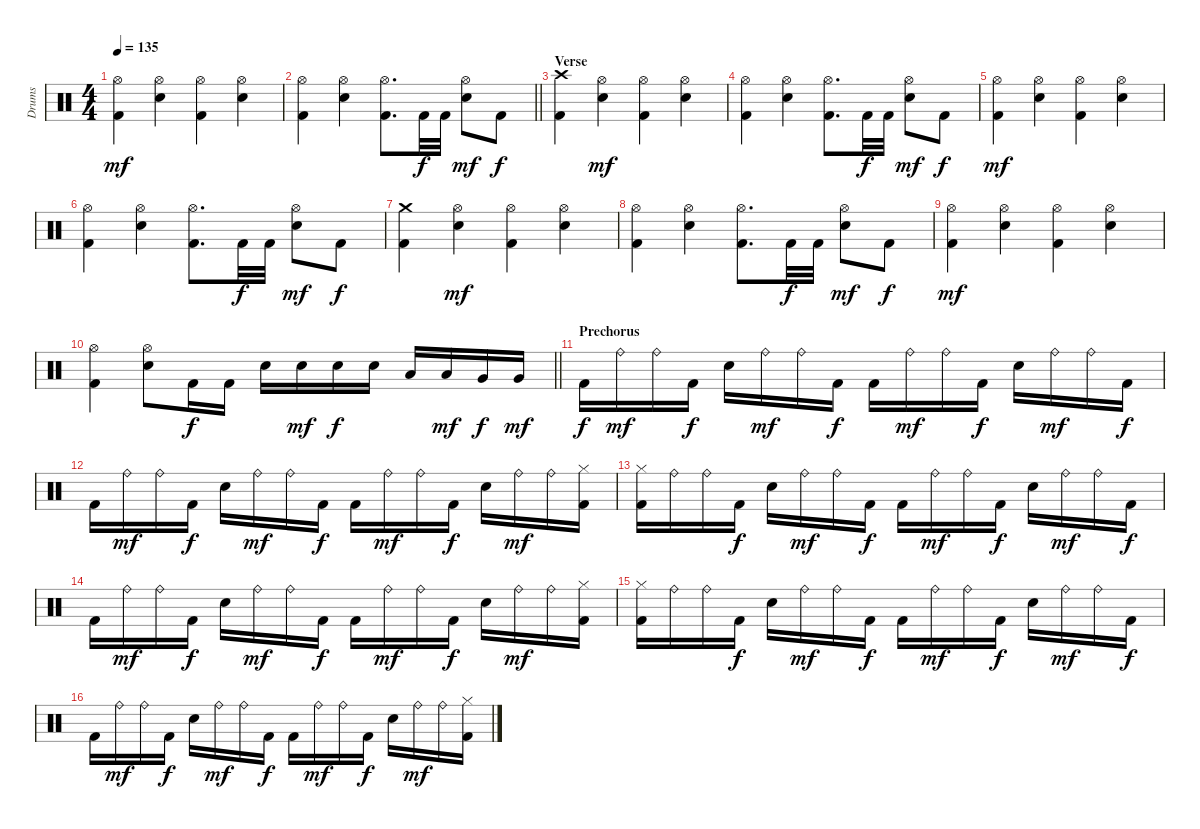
\track ("Drums" "Drums") {instrument percussion}
\staff {score}
\articulation defaults
\ts (4 4)
\tempo 135
\clef neutral
\ks c
("Kick (hit) 2" "Hi-Hat (open)").4{dy mf} ("Hi-Hat (open)" "Electric Snare (hit)").4 ("Kick (hit) 2" "Hi-Hat (open)").4 ("Hi-Hat (open)" "Electric Snare (hit)").4 |
\barLineRight lightlight
("Kick (hit) 2" "Hi-Hat (open)").4 ("Hi-Hat (open)" "Electric Snare (hit)").4 ("Kick (hit) 2" "Hi-Hat (open)").8{d} "Kick (hit) 2".32{dy f} "Kick (hit) 2".32 ("Hi-Hat (open)" "Electric Snare (hit)").8{dy mf} "Kick (hit) 2".8{dy f} |
\section ("" "Verse")
("Kick (hit) 2" "Crash high (hit)").4 ("Hi-Hat (open)" "Electric Snare (hit)").4{dy mf} ("Kick (hit) 2" "Hi-Hat (open)").4 ("Hi-Hat (open)" "Electric Snare (hit)").4 |
("Kick (hit) 2" "Hi-Hat (open)").4 ("Hi-Hat (open)" "Electric Snare (hit)").4 ("Kick (hit) 2" "Hi-Hat (open)").8{d} "Kick (hit) 2".32{dy f} "Kick (hit) 2".32 ("Hi-Hat (open)" "Electric Snare (hit)").8{dy mf} "Kick (hit) 2".8{dy f} |
("Kick (hit) 2" "Hi-Hat (open)").4{dy mf} ("Hi-Hat (open)" "Electric Snare (hit)").4 ("Kick (hit) 2" "Hi-Hat (open)").4 ("Hi-Hat (open)" "Electric Snare (hit)").4 |
("Kick (hit) 2" "Hi-Hat (open)").4 ("Hi-Hat (open)" "Electric Snare (hit)").4 ("Kick (hit) 2" "Hi-Hat (open)").8{d} "Kick (hit) 2".32{dy f} "Kick (hit) 2".32 ("Hi-Hat (open)" "Electric Snare (hit)").8{dy mf} "Kick (hit) 2".8{dy f} |
("Kick (hit) 2" "Crash medium (hit)").4 ("Hi-Hat (open)" "Electric Snare (hit)").4{dy mf} ("Kick (hit) 2" "Hi-Hat (open)").4 ("Hi-Hat (open)" "Electric Snare (hit)").4 |
("Kick (hit) 2" "Hi-Hat (open)").4 ("Hi-Hat (open)" "Electric Snare (hit)").4 ("Kick (hit) 2" "Hi-Hat (open)").8{d} "Kick (hit) 2".32{dy f} "Kick (hit) 2".32 ("Hi-Hat (open)" "Electric Snare (hit)").8{dy mf} "Kick (hit) 2".8{dy f} |
("Kick (hit) 2" "Hi-Hat (open)").4{dy mf} ("Hi-Hat (open)" "Electric Snare (hit)").4 ("Kick (hit) 2" "Hi-Hat (open)").4 ("Hi-Hat (open)" "Electric Snare (hit)").4 |
\barLineRight lightlight
("Kick (hit) 2" "Hi-Hat (open)").4 ("Hi-Hat (open)" "Electric Snare (hit)").8 "Kick (hit) 2".16{dy f} "Kick (hit) 2".16 "Electric Snare (hit)".16 "Electric Snare (hit)".16{dy mf} "Electric Snare (hit)".16{dy f} "Electric Snare (hit)".16 "Low Tom (hit)".16 "Low Tom (hit)".16{dy mf} "Very Low Tom (hit)".16{dy f} "Very Low Tom (hit)".16{dy mf} |
\section ("" "Prechorus")
"Kick (hit) 2".16{dy f} "Ride (bell)".16{dy mf} "Ride (bell)".16 "Kick (hit) 2".16{dy f} "Electric Snare (hit)".16 "Ride (bell)".16{dy mf} "Ride (bell)".16 "Kick (hit) 2".16{dy f} "Kick (hit) 2".16 "Ride (bell)".16{dy mf} "Ride (bell)".16 "Kick (hit) 2".16{dy f} "Electric Snare (hit)".16 "Ride (bell)".16{dy mf} "Ride (bell)".16 "Kick (hit) 2".16{dy f} |
"Kick (hit) 2".16 "Ride (bell)".16{dy mf} "Ride (bell)".16 "Kick (hit) 2".16{dy f} "Electric Snare (hit)".16 "Ride (bell)".16{dy mf} "Ride (bell)".16 "Kick (hit) 2".16{dy f} "Kick (hit) 2".16 "Ride (bell)".16{dy mf} "Ride (bell)".16 "Kick (hit) 2".16{dy f} "Electric Snare (hit)".16 "Ride (bell)".16{dy mf} "Ride (bell)".16 ("Kick (hit) 2" "Hi-Hat (closed)").16 |
("Kick (hit) 2" "Hi-Hat (closed)").16 "Ride (bell)".16 "Ride (bell)".16 "Kick (hit) 2".16{dy f} "Electric Snare (hit)".16 "Ride (bell)".16{dy mf} "Ride (bell)".16 "Kick (hit) 2".16{dy f} "Kick (hit) 2".16 "Ride (bell)".16{dy mf} "Ride (bell)".16 "Kick (hit) 2".16{dy f} "Electric Snare (hit)".16 "Ride (bell)".16{dy mf} "Ride (bell)".16 "Kick (hit) 2".16{dy f} |
"Kick (hit) 2".16 "Ride (bell)".16{dy mf} "Ride (bell)".16 "Kick (hit) 2".16{dy f} "Electric Snare (hit)".16 "Ride (bell)".16{dy mf} "Ride (bell)".16 "Kick (hit) 2".16{dy f} "Kick (hit) 2".16 "Ride (bell)".16{dy mf} "Ride (bell)".16 "Kick (hit) 2".16{dy f} "Electric Snare (hit)".16 "Ride (bell)".16{dy mf} "Ride (bell)".16 ("Kick (hit) 2" "Hi-Hat (closed)").16 |
("Kick (hit) 2" "Hi-Hat (closed)").16 "Ride (bell)".16 "Ride (bell)".16 "Kick (hit) 2".16{dy f} "Electric Snare (hit)".16 "Ride (bell)".16{dy mf} "Ride (bell)".16 "Kick (hit) 2".16{dy f} "Kick (hit) 2".16 "Ride (bell)".16{dy mf} "Ride (bell)".16 "Kick (hit) 2".16{dy f} "Electric Snare (hit)".16 "Ride (bell)".16{dy mf} "Ride (bell)".16 "Kick (hit) 2".16{dy f} |
"Kick (hit) 2".16 "Ride (bell)".16{dy mf} "Ride (bell)".16 "Kick (hit) 2".16{dy f} "Electric Snare (hit)".16 "Ride (bell)".16{dy mf} "Ride (bell)".16 "Kick (hit) 2".16{dy f} "Kick (hit) 2".16 "Ride (bell)".16{dy mf} "Ride (bell)".16 "Kick (hit) 2".16{dy f} "Electric Snare (hit)".16 "Ride (bell)".16{dy mf} "Ride (bell)".16 ("Kick (hit) 2" "Hi-Hat (closed)").16
